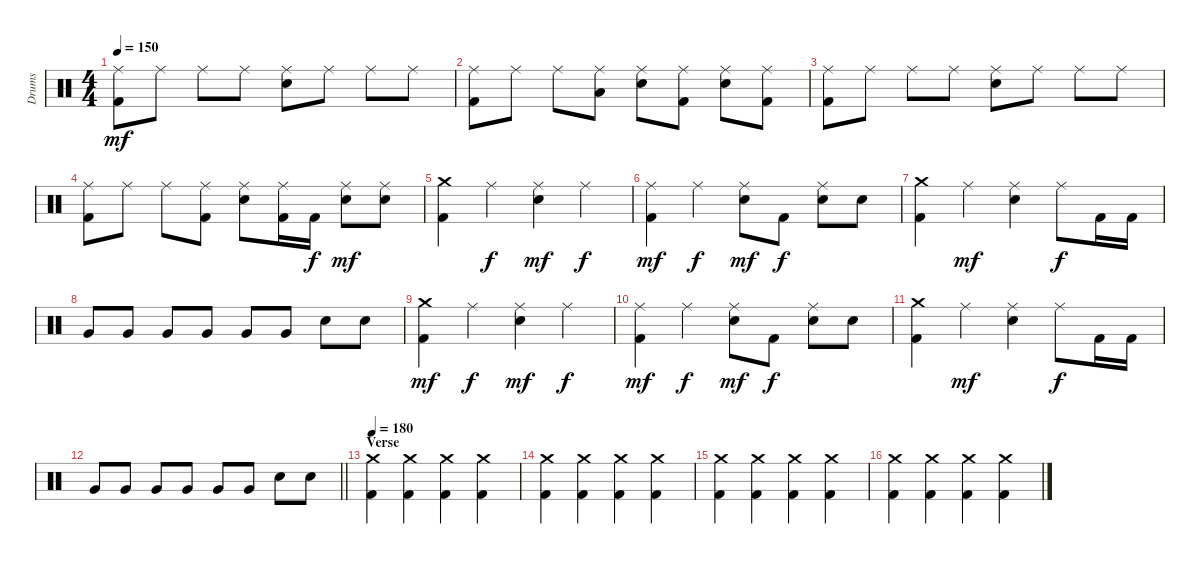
\track ("Drums" "Drums") {instrument percussion}
\staff {score}
\articulation defaults
\ts (4 4)
\tempo 150
\clef neutral
\ks c
("Ride (middle)" "Kick (hit) 2").8{dy mf} "Ride (middle)".8 "Ride (middle)".8 "Ride (middle)".8 ("Ride (middle)" "Snare (hit) 2").8 "Ride (middle)".8 "Ride (middle)".8 "Ride (middle)".8 |
("Ride (middle)" "Kick (hit) 2").8 "Ride (middle)".8 "Ride (middle)".8 ("Ride (middle)" "Low Floor Tom (hit)").8 ("Ride (middle)" "Snare (hit) 2").8 ("Ride (middle)" "Kick (hit) 2").8 ("Ride (middle)" "Snare (hit) 2").8 ("Ride (middle)" "Kick (hit) 2").8 |
("Ride (middle)" "Kick (hit) 2").8 "Ride (middle)".8 "Ride (middle)".8 "Ride (middle)".8 ("Ride (middle)" "Snare (hit) 2").8 "Ride (middle)".8 "Ride (middle)".8 "Ride (middle)".8 |
("Ride (middle)" "Kick (hit) 2").8 "Ride (middle)".8 "Ride (middle)".8 ("Ride (middle)" "Kick (hit) 2").8 ("Ride (middle)" "Snare (hit) 2").8 ("Ride (middle)" "Kick (hit) 2").16 "Kick (hit) 2".16{dy f} ("Ride (middle)" "Snare (hit) 2").8{dy mf} ("Ride (middle)" "Snare (hit) 2").8 |
("Crash medium (hit)" "Kick (hit) 2").4 "Ride (middle)".4{dy f} ("Ride (middle)" "Snare (hit) 2").4{dy mf} "Ride (middle)".4{dy f} |
("Ride (middle)" "Kick (hit) 2").4{dy mf} "Ride (middle)".4{dy f} ("Ride (middle)" "Snare (hit) 2").8{dy mf} "Kick (hit) 2".8{dy f} ("Ride (middle)" "Snare (hit) 2").8 "Snare (hit) 2".8 |
("Crash medium (hit)" "Kick (hit) 2").4 "Ride (middle)".4{dy mf} ("Ride (middle)" "Snare (hit) 2").4 "Ride (middle)".8{dy f} "Kick (hit) 2".16 "Kick (hit) 2".16 |
"Very Low Tom (hit)".8 "Very Low Tom (hit)".8 "Very Low Tom (hit)".8 "Very Low Tom (hit)".8 "Very Low Tom (hit)".8 "Very Low Tom (hit)".8 "Snare (hit) 2".8 "Snare (hit) 2".8 |
("Crash medium (hit)" "Kick (hit) 2").4{dy mf} "Ride (middle)".4{dy f} ("Ride (middle)" "Snare (hit) 2").4{dy mf} "Ride (middle)".4{dy f} |
("Ride (middle)" "Kick (hit) 2").4{dy mf} "Ride (middle)".4{dy f} ("Ride (middle)" "Snare (hit) 2").8{dy mf} "Kick (hit) 2".8{dy f} ("Ride (middle)" "Snare (hit) 2").8 "Snare (hit) 2".8 |
("Crash medium (hit)" "Kick (hit) 2").4 "Ride (middle)".4{dy mf} ("Ride (middle)" "Snare (hit) 2").4 "Ride (middle)".8{dy f} "Kick (hit) 2".16 "Kick (hit) 2".16 |
\barLineRight lightlight "Very Low Tom (hit)".8 "Very Low Tom (hit)".8 "Very Low Tom (hit)".8 "Very Low Tom (hit)".8 "Very Low Tom (hit)".8 "Very Low Tom (hit)".8 "Snare (hit) 2".8 "Snare (hit) 2".8
|
\section ("" "Verse")
\tempo 190
\tempo 180
("Crash medium (hit)" "Kick (hit) 2").4 ("Crash medium (hit)" "Kick (hit) 2").4 ("Crash medium (hit)" "Kick (hit) 2").4 ("Crash medium (hit)" "Kick (hit) 2").4 |
("Crash medium (hit)" "Kick (hit) 2").4 ("Crash medium (hit)" "Kick (hit) 2").4 ("Crash medium (hit)" "Kick (hit) 2").4 ("Crash medium (hit)" "Kick (hit) 2").4 |
("Crash medium (hit)" "Kick (hit) 2").4 ("Crash medium (hit)" "Kick (hit) 2").4 ("Crash medium (hit)" "Kick (hit) 2").4 ("Crash medium (hit)" "Kick (hit) 2").4 |
("Crash medium (hit)" "Kick (hit) 2").4 ("Crash medium (hit)" "Kick (hit) 2").4 ("Crash medium (hit)" "Kick (hit) 2").4 ("Crash medium (hit)" "Kick (hit) 2").4
